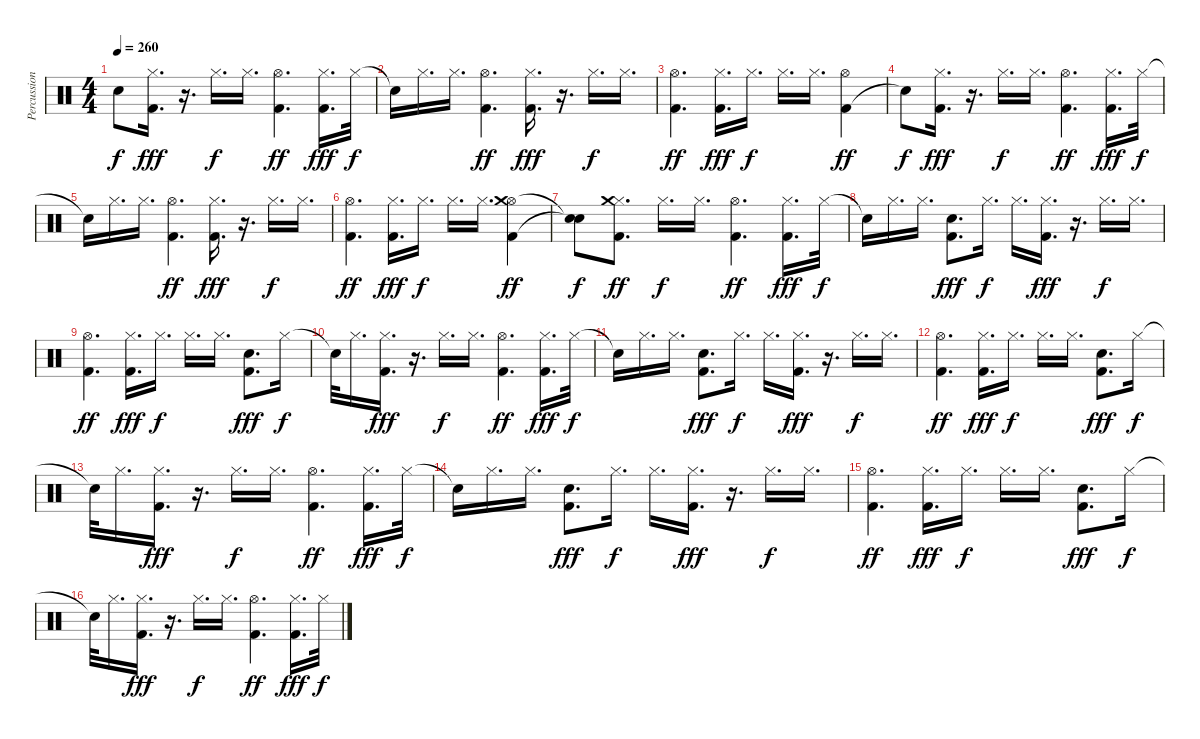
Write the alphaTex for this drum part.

\track ("Percussion" "Percussion") {instrument percussion}
\staff {score}
\articulation defaults
\ts (4 4)
\tempo 260
\clef neutral
\ks c "Snare (hit)"{t}.8{dy f}
("Kick (hit) 2" "Hi-Hat (closed)").16{d dy fff} r.16{d} "Hi-Hat (closed)".16{d dy f} "Hi-Hat (closed)".16{d} ("Kick (hit) 2" "Hi-Hat (open)").4{d dy ff} ("Kick (hit) 2" "Hi-Hat (closed)").16{d dy fff} "Hi-Hat (closed)".32{dy f} |
"Snare (hit)"{t}.16 "Hi-Hat (closed)".16{d} "Hi-Hat (closed)".16{d} ("Kick (hit) 2" "Hi-Hat (open)").4{d dy ff} ("Kick (hit) 2" "Hi-Hat (closed)").16{d dy fff} r.16{d} "Hi-Hat (closed)".16{d dy f} "Hi-Hat (closed)".16{d} |
("Kick (hit) 2" "Hi-Hat (open)").4{d dy ff} ("Kick (hit) 2" "Hi-Hat (closed)").16{d dy fff} "Hi-Hat (closed)".16{d dy f} "Hi-Hat (closed)".16{d} "Hi-Hat (closed)".16{d} ("Kick (hit) 2" "Hi-Hat (open)").4{dy ff} |
"Snare (hit)"{t}.8{dy f} ("Kick (hit) 2" "Hi-Hat (closed)").16{d dy fff} r.16{d} "Hi-Hat (closed)".16{d dy f} "Hi-Hat (closed)".16{d} ("Kick (hit) 2" "Hi-Hat (open)").4{d dy ff} ("Kick (hit) 2" "Hi-Hat (closed)").16{d dy fff} "Hi-Hat (closed)".32{dy f} |
"Snare (hit)"{t}.16 "Hi-Hat (closed)".16{d} "Hi-Hat (closed)".16{d} ("Kick (hit) 2" "Hi-Hat (open)").4{d dy ff} ("Kick (hit) 2" "Hi-Hat (closed)").16{d dy fff} r.16{d} "Hi-Hat (closed)".16{d dy f} "Hi-Hat (closed)".16{d} |
("Kick (hit) 2" "Hi-Hat (open)").4{d dy ff} ("Kick (hit) 2" "Hi-Hat (closed)").16{d dy fff} "Hi-Hat (closed)".16{d dy f} "Hi-Hat (closed)".16{d} "Hi-Hat (closed)".16{d} ("Kick (hit) 2" "Hi-Hat (open)" "Crash medium (hit)").4{dy ff} |
("Snare (hit)"{t} "Snare (hit)"{t}).8{dy f} ("Kick (hit) 2" "Hi-Hat (closed)" "Crash medium (hit)").8{d dy ff} "Hi-Hat (closed)".16{d dy f} "Hi-Hat (closed)".16{d} ("Kick (hit) 2" "Hi-Hat (open)").4{d dy ff} ("Kick (hit) 2" "Hi-Hat (closed)").16{d dy fff} "Hi-Hat (closed)".32{dy f} |
"Snare (hit)"{t}.16 "Hi-Hat (closed)".16{d} "Hi-Hat (closed)".16{d} ("Kick (hit) 2" "Electric Snare (hit)").8{d dy fff} "Hi-Hat (closed)".16{d dy f} "Hi-Hat (closed)".16{d} ("Kick (hit) 2" "Hi-Hat (closed)").16{d dy fff} r.16{d} "Hi-Hat (closed)".16{d dy f} "Hi-Hat (closed)".16{d} |
("Kick (hit) 2" "Hi-Hat (open)").4{d dy ff} ("Kick (hit) 2" "Hi-Hat (closed)").16{d dy fff} "Hi-Hat (closed)".16{d dy f} "Hi-Hat (closed)".16{d} "Hi-Hat (closed)".16{d} ("Kick (hit) 2" "Electric Snare (hit)").8{d dy fff} "Hi-Hat (closed)".16{dy f} |
"Snare (hit)"{t}.32 "Hi-Hat (closed)".16{d} ("Kick (hit) 2" "Hi-Hat (closed)").16{d dy fff} r.16{d} "Hi-Hat (closed)".16{d dy f} "Hi-Hat (closed)".16{d} ("Kick (hit) 2" "Hi-Hat (open)").4{d dy ff} ("Kick (hit) 2" "Hi-Hat (closed)").16{d dy fff} "Hi-Hat (closed)".32{dy f} |
"Snare (hit)"{t}.16 "Hi-Hat (closed)".16{d} "Hi-Hat (closed)".16{d} ("Kick (hit) 2" "Electric Snare (hit)").8{d dy fff} "Hi-Hat (closed)".16{d dy f} "Hi-Hat (closed)".16{d} ("Kick (hit) 2" "Hi-Hat (closed)").16{d dy fff} r.16{d} "Hi-Hat (closed)".16{d dy f} "Hi-Hat (closed)".16{d} |
("Kick (hit) 2" "Hi-Hat (open)").4{d dy ff} ("Kick (hit) 2" "Hi-Hat (closed)").16{d dy fff} "Hi-Hat (closed)".16{d dy f} "Hi-Hat (closed)".16{d} "Hi-Hat (closed)".16{d} ("Kick (hit) 2" "Electric Snare (hit)").8{d dy fff} "Hi-Hat (closed)".16{dy f} |
"Snare (hit)"{t}.32 "Hi-Hat (closed)".16{d} ("Kick (hit) 2" "Hi-Hat (closed)").16{d dy fff} r.16{d} "Hi-Hat (closed)".16{d dy f} "Hi-Hat (closed)".16{d} ("Kick (hit) 2" "Hi-Hat (open)").4{d dy ff} ("Kick (hit) 2" "Hi-Hat (closed)").16{d dy fff} "Hi-Hat (closed)".32{dy f} |
"Snare (hit)"{t}.16 "Hi-Hat (closed)".16{d} "Hi-Hat (closed)".16{d} ("Kick (hit) 2" "Electric Snare (hit)").8{d dy fff} "Hi-Hat (closed)".16{d dy f} "Hi-Hat (closed)".16{d} ("Kick (hit) 2" "Hi-Hat (closed)").16{d dy fff} r.16{d} "Hi-Hat (closed)".16{d dy f} "Hi-Hat (closed)".16{d} |
("Kick (hit) 2" "Hi-Hat (open)").4{d dy ff} ("Kick (hit) 2" "Hi-Hat (closed)").16{d dy fff} "Hi-Hat (closed)".16{d dy f} "Hi-Hat (closed)".16{d} "Hi-Hat (closed)".16{d} ("Kick (hit) 2" "Electric Snare (hit)").8{d dy fff} "Hi-Hat (closed)".16{dy f} |
"Snare (hit)"{t}.32 "Hi-Hat (closed)".16{d} ("Kick (hit) 2" "Hi-Hat (closed)").16{d dy fff} r.16{d} "Hi-Hat (closed)".16{d dy f} "Hi-Hat (closed)".16{d} ("Kick (hit) 2" "Hi-Hat (open)").4{d dy ff} ("Kick (hit) 2" "Hi-Hat (closed)").16{d dy fff} "Hi-Hat (closed)".32{dy f}
